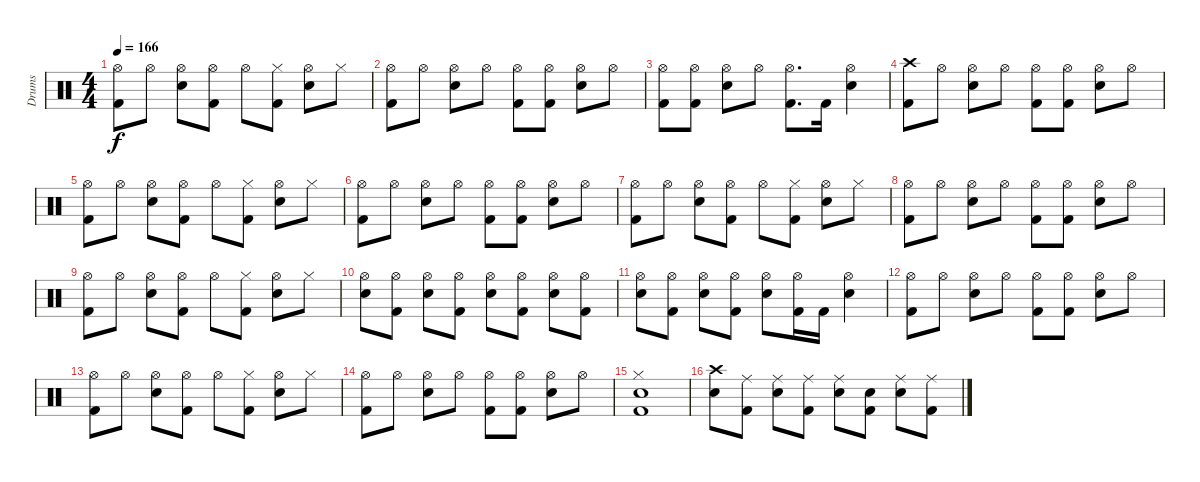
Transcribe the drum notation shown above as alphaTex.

\track ("Drums" "Drums") {instrument percussion}
\staff {score}
\articulation defaults
\ts (4 4)
\tempo 166
\clef neutral
\ks c
("Hi-Hat (open)" "Kick (hit) 2").8{dy f} "Hi-Hat (open)".8 ("Hi-Hat (open)" "Snare (hit) 2").8 ("Hi-Hat (open)" "Kick (hit) 2").8 "Hi-Hat (open)".8 ("Hi-Hat (closed)" "Kick (hit) 2").8 ("Hi-Hat (open)" "Snare (hit) 2").8 "Hi-Hat (closed)".8 |
("Hi-Hat (open)" "Kick (hit) 2").8 "Hi-Hat (open)".8 ("Hi-Hat (open)" "Snare (hit) 2").8 "Hi-Hat (open)".8 ("Hi-Hat (open)" "Kick (hit) 2").8 ("Hi-Hat (open)" "Kick (hit) 2").8 ("Hi-Hat (open)" "Snare (hit) 2").8 "Hi-Hat (open)".8 |
("Hi-Hat (open)" "Kick (hit) 2").8 ("Hi-Hat (open)" "Kick (hit) 2").8 ("Hi-Hat (open)" "Snare (hit) 2").8 "Hi-Hat (open)".8 ("Hi-Hat (open)" "Kick (hit) 2").8{d} "Kick (hit) 2".16 ("Hi-Hat (open)" "Snare (hit) 2").4 |
("Crash high (hit)" "Kick (hit) 2").8 "Hi-Hat (open)".8 ("Hi-Hat (open)" "Snare (hit) 2").8 "Hi-Hat (open)".8 ("Hi-Hat (open)" "Kick (hit) 2").8 ("Hi-Hat (open)" "Kick (hit) 2").8 ("Hi-Hat (open)" "Snare (hit) 2").8 "Hi-Hat (open)".8 |
("Hi-Hat (open)" "Kick (hit) 2").8 "Hi-Hat (open)".8 ("Hi-Hat (open)" "Snare (hit) 2").8 ("Hi-Hat (open)" "Kick (hit) 2").8 "Hi-Hat (open)".8 ("Hi-Hat (closed)" "Kick (hit) 2").8 ("Hi-Hat (open)" "Snare (hit) 2").8 "Hi-Hat (closed)".8 |
("Hi-Hat (open)" "Kick (hit) 2").8 "Hi-Hat (open)".8 ("Hi-Hat (open)" "Snare (hit) 2").8 "Hi-Hat (open)".8 ("Hi-Hat (open)" "Kick (hit) 2").8 ("Hi-Hat (open)" "Kick (hit) 2").8 ("Hi-Hat (open)" "Snare (hit) 2").8 "Hi-Hat (open)".8 |
("Hi-Hat (open)" "Kick (hit) 2").8 "Hi-Hat (open)".8 ("Hi-Hat (open)" "Snare (hit) 2").8 ("Hi-Hat (open)" "Kick (hit) 2").8 "Hi-Hat (open)".8 ("Hi-Hat (closed)" "Kick (hit) 2").8 ("Hi-Hat (open)" "Snare (hit) 2").8 "Hi-Hat (closed)".8 |
("Hi-Hat (open)" "Kick (hit) 2").8 "Hi-Hat (open)".8 ("Hi-Hat (open)" "Snare (hit) 2").8 "Hi-Hat (open)".8 ("Hi-Hat (open)" "Kick (hit) 2").8 ("Hi-Hat (open)" "Kick (hit) 2").8 ("Hi-Hat (open)" "Snare (hit) 2").8 "Hi-Hat (open)".8 |
("Hi-Hat (open)" "Kick (hit) 2").8 "Hi-Hat (open)".8 ("Hi-Hat (open)" "Snare (hit) 2").8 ("Hi-Hat (open)" "Kick (hit) 2").8 "Hi-Hat (open)".8 ("Hi-Hat (closed)" "Kick (hit) 2").8 ("Hi-Hat (open)" "Snare (hit) 2").8 "Hi-Hat (closed)".8 |
("Hi-Hat (open)" "Snare (hit) 2").8 ("Hi-Hat (open)" "Kick (hit) 2").8 ("Hi-Hat (open)" "Snare (hit) 2").8 ("Hi-Hat (open)" "Kick (hit) 2").8 ("Hi-Hat (open)" "Snare (hit) 2").8 ("Hi-Hat (open)" "Kick (hit) 2").8 ("Hi-Hat (open)" "Snare (hit) 2").8 ("Hi-Hat (open)" "Kick (hit) 2").8 |
("Hi-Hat (open)" "Snare (hit) 2").8 ("Hi-Hat (open)" "Kick (hit) 2").8 ("Hi-Hat (open)" "Snare (hit) 2").8 ("Hi-Hat (open)" "Kick (hit) 2").8 ("Hi-Hat (open)" "Snare (hit) 2").8 ("Hi-Hat (open)" "Kick (hit) 2").16 "Kick (hit) 2".16 ("Hi-Hat (open)" "Snare (hit) 2").4 |
("Hi-Hat (open)" "Kick (hit) 2").8 "Hi-Hat (open)".8 ("Hi-Hat (open)" "Snare (hit) 2").8 "Hi-Hat (open)".8 ("Hi-Hat (open)" "Kick (hit) 2").8 ("Hi-Hat (open)" "Kick (hit) 2").8 ("Hi-Hat (open)" "Snare (hit) 2").8 "Hi-Hat (open)".8 |
("Hi-Hat (open)" "Kick (hit) 2").8 "Hi-Hat (open)".8 ("Hi-Hat (open)" "Snare (hit) 2").8 ("Hi-Hat (open)" "Kick (hit) 2").8 "Hi-Hat (open)".8 ("Hi-Hat (closed)" "Kick (hit) 2").8 ("Hi-Hat (open)" "Snare (hit) 2").8 "Hi-Hat (closed)".8 |
("Hi-Hat (open)" "Kick (hit) 2").8 "Hi-Hat (open)".8 ("Hi-Hat (open)" "Snare (hit) 2").8 "Hi-Hat (open)".8 ("Hi-Hat (open)" "Kick (hit) 2").8 ("Hi-Hat (open)" "Kick (hit) 2").8 ("Hi-Hat (open)" "Snare (hit) 2").8 "Hi-Hat (open)".8 |
("Hi-Hat (closed)" "Snare (hit) 2" "Kick (hit) 2").1 |
("Crash high (hit)" "Snare (hit) 2").8 ("Ride (middle)" "Kick (hit) 2").8 ("Ride (middle)" "Snare (hit) 2").8 ("Ride (middle)" "Kick (hit) 2").8 ("Ride (middle)" "Snare (hit) 2").8 ("Snare (hit)" "Kick (hit) 2").8 ("Ride (middle)" "Snare (hit) 2").8 ("Ride (middle)" "Kick (hit) 2").8
